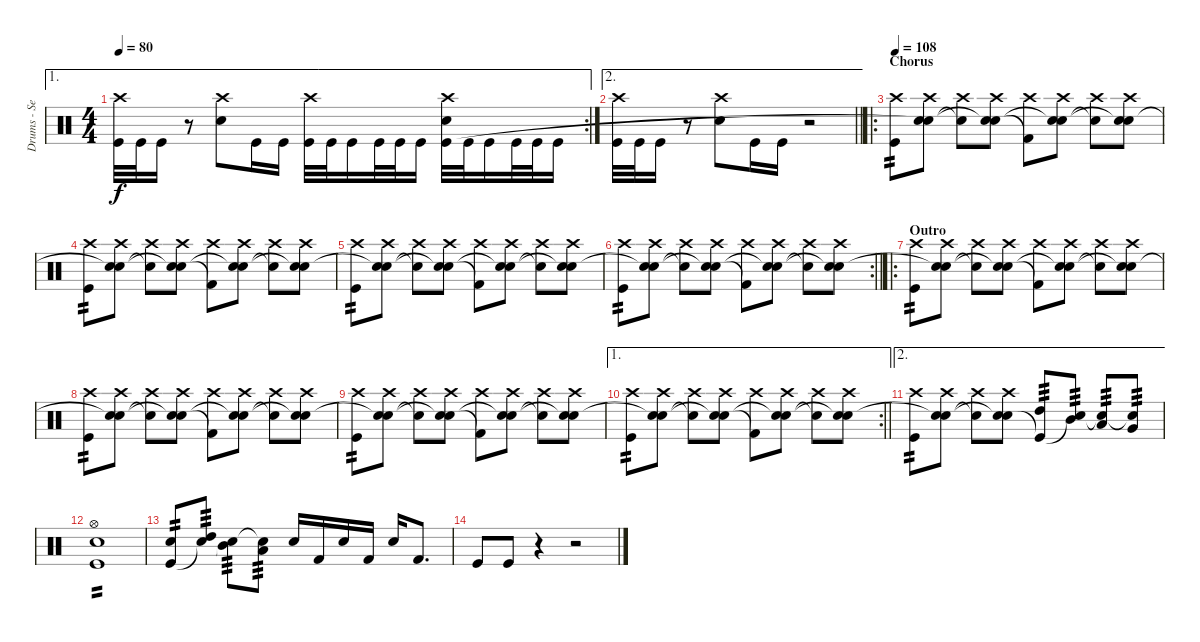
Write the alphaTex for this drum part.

\track ("Drums - Sebastian Heldt" "Drums - Se") {instrument percussion}
\staff {score}
\articulation defaults
\ae 1
\rc 2
\ts (4 4)
\tempo 80
\clef neutral
\ks c
("Crash high (hit)" "Kick (hit)").32{dy f} "Kick (hit)".32 "Kick (hit)".16 r.8 ("Crash high (hit)" "Electric Snare (hit)").8 "Kick (hit)".16 "Kick (hit)".16 ("Crash high (hit)" "Kick (hit)").32 "Kick (hit)".32 "Kick (hit)".16 "Kick (hit)".32 "Kick (hit)".32 "Kick (hit)".16 ("Crash high (hit)" "Electric Snare (hit)" "Kick (hit)").32 "Kick (hit)".32 "Kick (hit)".16 "Kick (hit)".32 "Kick (hit)".32 "Kick (hit)".16 |
\ae 2
\barLineRight lightlight
("Crash high (hit)" "Kick (hit)").32 "Kick (hit)".32 "Kick (hit)".16 r.8 ("Crash high (hit)" "Electric Snare (hit)").8 "Kick (hit)".16 "Kick (hit)".16 r.2 |
\ro
\section ("" "Chorus")
\tempo 108
("Crash high (hit)" "Kick (hit)").8{tp 2} ("Crash high (hit)" "Electric Snare (hit)" "Snare (hit)"{t}).8 ("Crash high (hit)" "Snare (hit)"{t}).8 ("Crash high (hit)" "Electric Snare (hit)" "Snare (hit)"{t}).8 ("Crash high (hit)" "Kick (hit) 2"{t}).8 ("Crash high (hit)" "Electric Snare (hit)" "Snare (hit)"{t}).8 ("Crash high (hit)" "Snare (hit)"{t}).8 ("Crash high (hit)" "Electric Snare (hit)" "Snare (hit)"{t}).8 |
("Crash high (hit)" "Kick (hit)").8{tp 2} ("Crash high (hit)" "Electric Snare (hit)" "Snare (hit)"{t}).8 ("Crash high (hit)" "Snare (hit)"{t}).8 ("Crash high (hit)" "Electric Snare (hit)" "Snare (hit)"{t}).8 ("Crash high (hit)" "Kick (hit) 2"{t}).8 ("Crash high (hit)" "Electric Snare (hit)" "Snare (hit)"{t}).8 ("Crash high (hit)" "Snare (hit)"{t}).8 ("Crash high (hit)" "Electric Snare (hit)" "Snare (hit)"{t}).8 |
("Crash high (hit)" "Kick (hit)").8{tp 2} ("Crash high (hit)" "Electric Snare (hit)" "Snare (hit)"{t}).8 ("Crash high (hit)" "Snare (hit)"{t}).8 ("Crash high (hit)" "Electric Snare (hit)" "Snare (hit)"{t}).8 ("Crash high (hit)" "Kick (hit) 2"{t}).8 ("Crash high (hit)" "Electric Snare (hit)" "Snare (hit)"{t}).8 ("Crash high (hit)" "Snare (hit)"{t}).8 ("Crash high (hit)" "Electric Snare (hit)" "Snare (hit)"{t}).8 |
\rc 2
\barLineRight lightlight
("Crash high (hit)" "Kick (hit)").8{tp 2} ("Crash high (hit)" "Electric Snare (hit)" "Snare (hit)"{t}).8 ("Crash high (hit)" "Snare (hit)"{t}).8 ("Crash high (hit)" "Electric Snare (hit)" "Snare (hit)"{t}).8 ("Crash high (hit)" "Kick (hit) 2"{t}).8 ("Crash high (hit)" "Electric Snare (hit)" "Snare (hit)"{t}).8 ("Crash high (hit)" "Snare (hit)"{t}).8 ("Crash high (hit)" "Electric Snare (hit)" "Snare (hit)"{t}).8 |
\ro
\section ("" "Outro")
("Crash high (hit)" "Kick (hit)").8{tp 2} ("Crash high (hit)" "Electric Snare (hit)" "Snare (hit)"{t}).8 ("Crash high (hit)" "Snare (hit)"{t}).8 ("Crash high (hit)" "Electric Snare (hit)" "Snare (hit)"{t}).8 ("Crash high (hit)" "Kick (hit) 2"{t}).8 ("Crash high (hit)" "Electric Snare (hit)" "Snare (hit)"{t}).8 ("Crash high (hit)" "Snare (hit)"{t}).8 ("Crash high (hit)" "Electric Snare (hit)" "Snare (hit)"{t}).8 |
("Crash high (hit)" "Kick (hit)").8{tp 2} ("Crash high (hit)" "Electric Snare (hit)" "Snare (hit)"{t}).8 ("Crash high (hit)" "Snare (hit)"{t}).8 ("Crash high (hit)" "Electric Snare (hit)" "Snare (hit)"{t}).8 ("Crash high (hit)" "Kick (hit) 2"{t}).8 ("Crash high (hit)" "Electric Snare (hit)" "Snare (hit)"{t}).8 ("Crash high (hit)" "Snare (hit)"{t}).8 ("Crash high (hit)" "Electric Snare (hit)" "Snare (hit)"{t}).8 |
("Crash high (hit)" "Kick (hit)").8{tp 2} ("Crash high (hit)" "Electric Snare (hit)" "Snare (hit)"{t}).8 ("Crash high (hit)" "Snare (hit)"{t}).8 ("Crash high (hit)" "Electric Snare (hit)" "Snare (hit)"{t}).8 ("Crash high (hit)" "Kick (hit) 2"{t}).8 ("Crash high (hit)" "Electric Snare (hit)" "Snare (hit)"{t}).8 ("Crash high (hit)" "Snare (hit)"{t}).8 ("Crash high (hit)" "Electric Snare (hit)" "Snare (hit)"{t}).8 |
\ae 1
\rc 2
\barLineRight lightlight
("Crash high (hit)" "Kick (hit)").8{tp 2} ("Crash high (hit)" "Electric Snare (hit)" "Snare (hit)"{t}).8 ("Crash high (hit)" "Snare (hit)"{t}).8 ("Crash high (hit)" "Electric Snare (hit)" "Snare (hit)"{t}).8 ("Crash high (hit)" "Kick (hit) 2"{t}).8 ("Crash high (hit)" "Electric Snare (hit)" "Snare (hit)"{t}).8 ("Crash high (hit)" "Snare (hit)"{t}).8 ("Crash high (hit)" "Electric Snare (hit)" "Snare (hit)"{t}).8 |
\ae 2
("Crash high (hit)" "Kick (hit)").8{tp 2} ("Crash high (hit)" "Electric Snare (hit)" "Snare (hit)"{t}).8 ("Crash high (hit)" "Snare (hit)"{t}).8 ("Crash high (hit)" "Electric Snare (hit)" "Snare (hit)"{t}).8 ("High Tom (hit)" "Kick (hit)"{t}).8{tp 3} ("Mid Tom (hit)" "Snare (hit)"{t}).8{tp 3} ("Low Tom (hit)" "Snare (hit)"{t}).8{tp 3} ("Very Low Tom (hit)" "Snare (hit)"{t}).8{tp 3} |
("Hi-Hat (open)" "Electric Snare (hit)" "Kick (hit)").1{tp 2} |
("Electric Snare (hit)" "Kick (hit)").8{tp 2} ("High Tom (hit)" "Snare (hit)"{t}).8{tp 3} ("Mid Tom (hit)" "Snare (hit)"{t}).8{tp 3} ("Low Tom (hit)" "Snare (hit)"{t}).8{tp 3} "Electric Snare (hit)".16 "Kick (hit) 2".16 "Electric Snare (hit)".16 "Kick (hit) 2".16 "Electric Snare (hit)".16 "Kick (hit) 2".8{d} |
"Kick (hit)".8 "Kick (hit)".8 r.4 r.2
